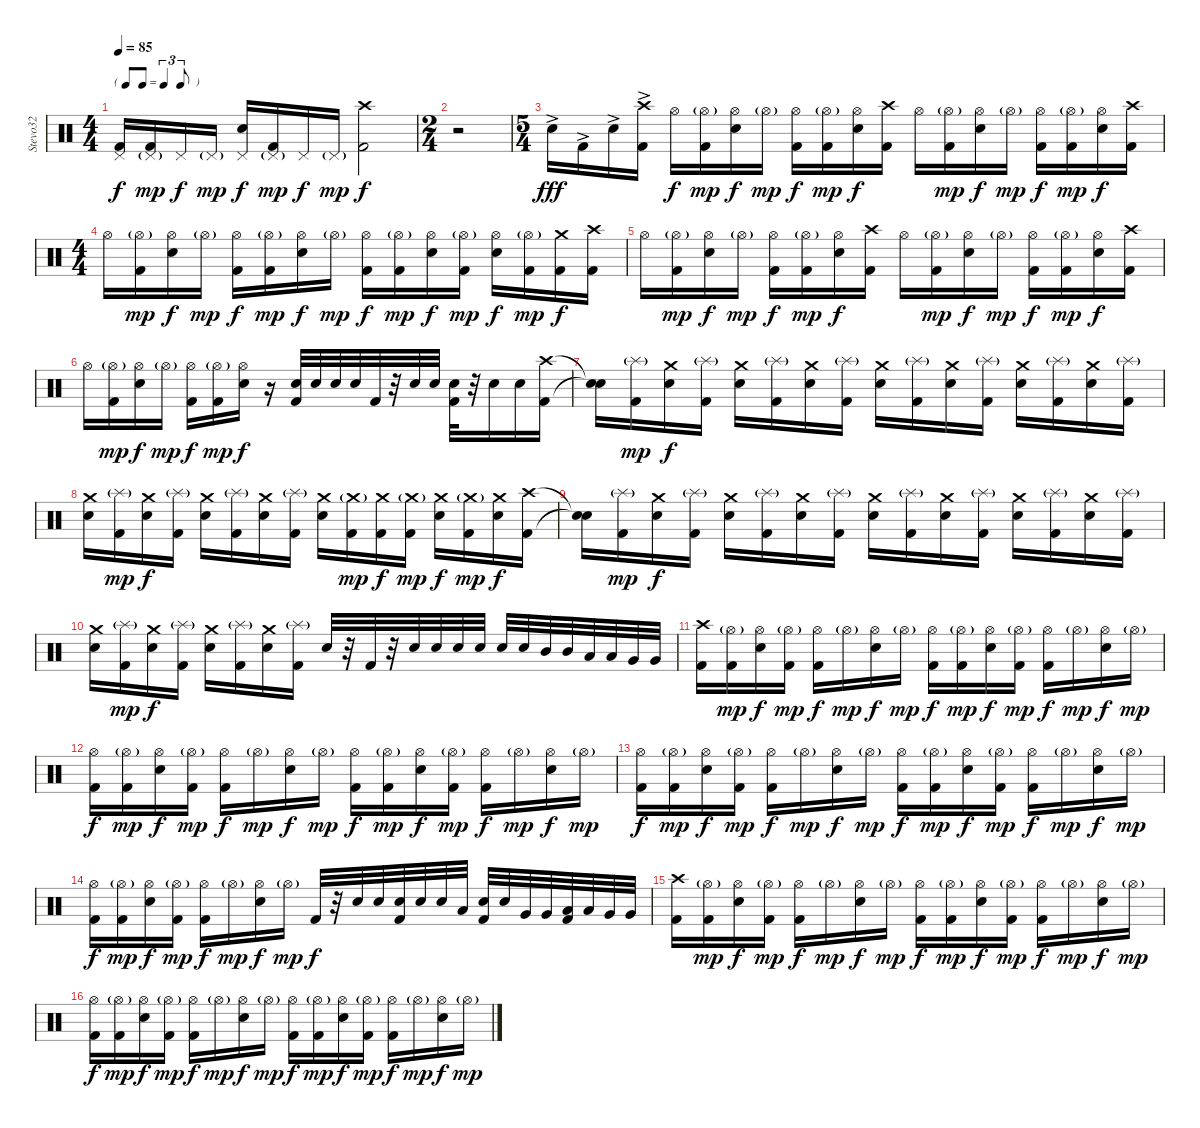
\track ("Stevo32" "Stevo32") {instrument percussion}
\staff {score}
\articulation defaults
\ts (4 4)
\tf triplet8th
\tempo 85
\clef neutral
\ks c
("Pedal Hi-Hat (hit)" "Kick (hit) 2").16{dy f} ("Pedal Hi-Hat (hit)"{g} "Kick (hit) 2").16{dy mp} "Pedal Hi-Hat (hit)".16{dy f} "Pedal Hi-Hat (hit)"{g}.16{dy mp} ("Pedal Hi-Hat (hit)" "Electric Snare (hit)").16{dy f} ("Pedal Hi-Hat (hit)"{g} "Kick (hit) 2").16{dy mp} "Pedal Hi-Hat (hit)".16{dy f} "Pedal Hi-Hat (hit)"{g}.16{dy mp} ("Crash high (hit)" "Kick (hit) 2").2{dy f} |
\ts (2 4)
r.2 |
\ts (5 4)
"Electric Snare (hit)"{ac}.16{dy fff} "Kick (hit) 2"{ac}.16 "Electric Snare (hit)"{ac}.16 ("Crash high (hit)" "Kick (hit) 2"{ac}).16 "Hi-Hat (open)".16{dy f} ("Hi-Hat (open)"{g} "Kick (hit) 2").16{dy mp} ("Hi-Hat (open)" "Electric Snare (hit)").16{dy f} "Hi-Hat (open)"{g}.16{dy mp} ("Hi-Hat (open)" "Kick (hit) 2").16{dy f} ("Hi-Hat (open)"{g} "Kick (hit) 2").16{dy mp} ("Hi-Hat (open)" "Electric Snare (hit)").16{dy f} ("Crash high (hit)" "Kick (hit) 2").16 "Hi-Hat (open)".16 ("Hi-Hat (open)"{g} "Kick (hit) 2").16{dy mp} ("Hi-Hat (open)" "Electric Snare (hit)").16{dy f} "Hi-Hat (open)"{g}.16{dy mp} ("Hi-Hat (open)" "Kick (hit) 2").16{dy f} ("Hi-Hat (open)"{g} "Kick (hit) 2").16{dy mp} ("Hi-Hat (open)" "Electric Snare (hit)").16{dy f} ("Crash high (hit)" "Kick (hit) 2").16 |
\ts (4 4)
"Hi-Hat (open)".16 ("Hi-Hat (open)"{g} "Kick (hit) 2").16{dy mp} ("Hi-Hat (open)" "Electric Snare (hit)").16{dy f} "Hi-Hat (open)"{g}.16{dy mp} ("Hi-Hat (open)" "Kick (hit) 2").16{dy f} ("Hi-Hat (open)"{g} "Kick (hit) 2").16{dy mp} ("Hi-Hat (open)" "Electric Snare (hit)").16{dy f} "Hi-Hat (open)"{g}.16{dy mp} ("Hi-Hat (open)" "Kick (hit) 2").16{dy f} ("Hi-Hat (open)"{g} "Kick (hit) 2").16{dy mp} ("Hi-Hat (open)" "Electric Snare (hit)").16{dy f} ("Hi-Hat (open)"{g} "Kick (hit) 2").16{dy mp} ("Hi-Hat (open)" "Electric Snare (hit)").16{dy f} ("Hi-Hat (open)"{g} "Kick (hit) 2").16{dy mp} ("Crash medium (hit)" "Kick (hit) 2").16{dy f} ("Crash high (hit)" "Kick (hit) 2").16 |
"Hi-Hat (open)".16 ("Hi-Hat (open)"{g} "Kick (hit) 2").16{dy mp} ("Hi-Hat (open)" "Electric Snare (hit)").16{dy f} "Hi-Hat (open)"{g}.16{dy mp} ("Hi-Hat (open)" "Kick (hit) 2").16{dy f} ("Hi-Hat (open)"{g} "Kick (hit) 2").16{dy mp} ("Hi-Hat (open)" "Electric Snare (hit)").16{dy f} ("Crash high (hit)" "Kick (hit) 2").16 "Hi-Hat (open)".16 ("Hi-Hat (open)"{g} "Kick (hit) 2").16{dy mp} ("Hi-Hat (open)" "Electric Snare (hit)").16{dy f} "Hi-Hat (open)"{g}.16{dy mp} ("Hi-Hat (open)" "Kick (hit) 2").16{dy f} ("Hi-Hat (open)"{g} "Kick (hit) 2").16{dy mp} ("Hi-Hat (open)" "Electric Snare (hit)").16{dy f} ("Crash high (hit)" "Kick (hit) 2").16 |
"Hi-Hat (open)".16 ("Hi-Hat (open)"{g} "Kick (hit) 2").16{dy mp} ("Hi-Hat (open)" "Electric Snare (hit)").16{dy f} "Hi-Hat (open)"{g}.16{dy mp} ("Hi-Hat (open)" "Kick (hit) 2").16{dy f} ("Hi-Hat (open)"{g} "Kick (hit) 2").16{dy mp} ("Hi-Hat (open)" "Electric Snare (hit)").16{dy f} r.16 ("Electric Snare (hit)" "Kick (hit) 2").32 "Electric Snare (hit)".32 "Electric Snare (hit)".32 "Electric Snare (hit)".32 "Kick (hit) 2".32 r.32 "Electric Snare (hit)".32 "Electric Snare (hit)".32 ("Electric Snare (hit)" "Kick (hit) 2").32 r.32 "Electric Snare (hit)".16 "Electric Snare (hit)".16 ("Crash high (hit)" "Kick (hit) 2").16 |
("Snare (hit)"{t} "Snare (hit)"{t}).16 ("Splash (hit)"{g} "Kick (hit) 2").16{dy mp} ("Crash medium (hit)" "Electric Snare (hit)").16{dy f} ("Splash (hit)"{g} "Kick (hit) 2").16 ("Crash medium (hit)" "Electric Snare (hit)").16 ("Splash (hit)"{g} "Kick (hit) 2").16 ("Crash medium (hit)" "Electric Snare (hit)").16 ("Splash (hit)"{g} "Kick (hit) 2").16 ("Crash medium (hit)" "Electric Snare (hit)").16 ("Splash (hit)"{g} "Kick (hit) 2").16 ("Crash medium (hit)" "Electric Snare (hit)").16 ("Splash (hit)"{g} "Kick (hit) 2").16 ("Crash medium (hit)" "Electric Snare (hit)").16 ("Splash (hit)"{g} "Kick (hit) 2").16 ("Crash medium (hit)" "Electric Snare (hit)").16 ("Splash (hit)"{g} "Kick (hit) 2").16 |
("Crash medium (hit)" "Electric Snare (hit)").16 ("Splash (hit)"{g} "Kick (hit) 2").16{dy mp} ("Crash medium (hit)" "Electric Snare (hit)").16{dy f} ("Splash (hit)"{g} "Kick (hit) 2").16 ("Crash medium (hit)" "Electric Snare (hit)").16 ("Splash (hit)"{g} "Kick (hit) 2").16 ("Crash medium (hit)" "Electric Snare (hit)").16 ("Splash (hit)"{g} "Kick (hit) 2").16 ("Crash medium (hit)" "Electric Snare (hit)").16 ("Crash medium (hit)"{g} "Kick (hit) 2").16{dy mp} ("Crash medium (hit)" "Kick (hit) 2").16{dy f} ("Crash medium (hit)"{g} "Kick (hit) 2").16{dy mp} ("Crash medium (hit)" "Electric Snare (hit)").16{dy f} ("Crash medium (hit)"{g} "Kick (hit) 2").16{dy mp} ("Crash medium (hit)" "Electric Snare (hit)").16{dy f} ("Crash high (hit)" "Kick (hit) 2").16 |
("Snare (hit)"{t} "Snare (hit)"{t}).16 ("Splash (hit)"{g} "Kick (hit) 2").16{dy mp} ("Crash medium (hit)" "Electric Snare (hit)").16{dy f} ("Splash (hit)"{g} "Kick (hit) 2").16 ("Crash medium (hit)" "Electric Snare (hit)").16 ("Splash (hit)"{g} "Kick (hit) 2").16 ("Crash medium (hit)" "Electric Snare (hit)").16 ("Splash (hit)"{g} "Kick (hit) 2").16 ("Crash medium (hit)" "Electric Snare (hit)").16 ("Splash (hit)"{g} "Kick (hit) 2").16 ("Crash medium (hit)" "Electric Snare (hit)").16 ("Splash (hit)"{g} "Kick (hit) 2").16 ("Crash medium (hit)" "Electric Snare (hit)").16 ("Splash (hit)"{g} "Kick (hit) 2").16 ("Crash medium (hit)" "Electric Snare (hit)").16 ("Splash (hit)"{g} "Kick (hit) 2").16 |
("Crash medium (hit)" "Electric Snare (hit)").16 ("Splash (hit)"{g} "Kick (hit) 2").16{dy mp} ("Crash medium (hit)" "Electric Snare (hit)").16{dy f} ("Splash (hit)"{g} "Kick (hit) 2").16 ("Crash medium (hit)" "Electric Snare (hit)").16 ("Splash (hit)"{g} "Kick (hit) 2").16 ("Crash medium (hit)" "Electric Snare (hit)").16 ("Splash (hit)"{g} "Kick (hit) 2").16 "Electric Snare (hit)".32 r.32 "Kick (hit) 2".32 r.32 "Electric Snare (hit)".32 "Electric Snare (hit)".32 "Electric Snare (hit)".32 "Electric Snare (hit)".32 "Electric Snare (hit)".32 "Electric Snare (hit)".32 "Mid Tom (hit)".32 "Mid Tom (hit)".32 "Low Tom (hit)".32 "Low Tom (hit)".32 "Very Low Tom (hit)".32 "Very Low Tom (hit)".32 |
("Crash high (hit)" "Kick (hit) 2").16 ("Hi-Hat (open)"{g} "Kick (hit) 2").16{dy mp} ("Hi-Hat (open)" "Electric Snare (hit)").16{dy f} ("Hi-Hat (open)"{g} "Kick (hit) 2").16{dy mp} ("Hi-Hat (open)" "Kick (hit) 2").16{dy f} "Hi-Hat (open)"{g}.16{dy mp} ("Hi-Hat (open)" "Electric Snare (hit)").16{dy f} "Hi-Hat (open)"{g}.16{dy mp} ("Hi-Hat (open)" "Kick (hit) 2").16{dy f} ("Hi-Hat (open)"{g} "Kick (hit) 2").16{dy mp} ("Hi-Hat (open)" "Electric Snare (hit)").16{dy f} ("Hi-Hat (open)"{g} "Kick (hit) 2").16{dy mp} ("Hi-Hat (open)" "Kick (hit) 2").16{dy f} "Hi-Hat (open)"{g}.16{dy mp} ("Hi-Hat (open)" "Electric Snare (hit)").16{dy f} "Hi-Hat (open)"{g}.16{dy mp} |
("Hi-Hat (open)" "Kick (hit) 2").16{dy f} ("Hi-Hat (open)"{g} "Kick (hit) 2").16{dy mp} ("Hi-Hat (open)" "Electric Snare (hit)").16{dy f} ("Hi-Hat (open)"{g} "Kick (hit) 2").16{dy mp} ("Hi-Hat (open)" "Kick (hit) 2").16{dy f} "Hi-Hat (open)"{g}.16{dy mp} ("Hi-Hat (open)" "Electric Snare (hit)").16{dy f} "Hi-Hat (open)"{g}.16{dy mp} ("Hi-Hat (open)" "Kick (hit) 2").16{dy f} ("Hi-Hat (open)"{g} "Kick (hit) 2").16{dy mp} ("Hi-Hat (open)" "Electric Snare (hit)").16{dy f} ("Hi-Hat (open)"{g} "Kick (hit) 2").16{dy mp} ("Hi-Hat (open)" "Kick (hit) 2").16{dy f} "Hi-Hat (open)"{g}.16{dy mp} ("Hi-Hat (open)" "Electric Snare (hit)").16{dy f} "Hi-Hat (open)"{g}.16{dy mp} |
("Hi-Hat (open)" "Kick (hit) 2").16{dy f} ("Hi-Hat (open)"{g} "Kick (hit) 2").16{dy mp} ("Hi-Hat (open)" "Electric Snare (hit)").16{dy f} ("Hi-Hat (open)"{g} "Kick (hit) 2").16{dy mp} ("Hi-Hat (open)" "Kick (hit) 2").16{dy f} "Hi-Hat (open)"{g}.16{dy mp} ("Hi-Hat (open)" "Electric Snare (hit)").16{dy f} "Hi-Hat (open)"{g}.16{dy mp} ("Hi-Hat (open)" "Kick (hit) 2").16{dy f} ("Hi-Hat (open)"{g} "Kick (hit) 2").16{dy mp} ("Hi-Hat (open)" "Electric Snare (hit)").16{dy f} ("Hi-Hat (open)"{g} "Kick (hit) 2").16{dy mp} ("Hi-Hat (open)" "Kick (hit) 2").16{dy f} "Hi-Hat (open)"{g}.16{dy mp} ("Hi-Hat (open)" "Electric Snare (hit)").16{dy f} "Hi-Hat (open)"{g}.16{dy mp} |
("Hi-Hat (open)" "Kick (hit) 2").16{dy f} ("Hi-Hat (open)"{g} "Kick (hit) 2").16{dy mp} ("Hi-Hat (open)" "Electric Snare (hit)").16{dy f} ("Hi-Hat (open)"{g} "Kick (hit) 2").16{dy mp} ("Hi-Hat (open)" "Kick (hit) 2").16{dy f} "Hi-Hat (open)"{g}.16{dy mp} ("Hi-Hat (open)" "Electric Snare (hit)").16{dy f} "Hi-Hat (open)"{g}.16{dy mp} "Kick (hit) 2".32{dy f} r.32 "Electric Snare (hit)".32 "Electric Snare (hit)".32 ("Electric Snare (hit)" "Kick (hit) 2").32 "Electric Snare (hit)".32 "Electric Snare (hit)".32 "Low Tom (hit)".32 ("Electric Snare (hit)" "Kick (hit) 2").32 "Electric Snare (hit)".32 "Very Low Tom (hit)".32 "Very Low Tom (hit)".32 ("Low Tom (hit)" "Kick (hit) 2").32 "Low Tom (hit)".32 "Very Low Tom (hit)".32 "Very Low Tom (hit)".32 |
("Crash high (hit)" "Kick (hit) 2").16 ("Hi-Hat (open)"{g} "Kick (hit) 2").16{dy mp} ("Hi-Hat (open)" "Electric Snare (hit)").16{dy f} ("Hi-Hat (open)"{g} "Kick (hit) 2").16{dy mp} ("Hi-Hat (open)" "Kick (hit) 2").16{dy f} "Hi-Hat (open)"{g}.16{dy mp} ("Hi-Hat (open)" "Electric Snare (hit)").16{dy f} "Hi-Hat (open)"{g}.16{dy mp} ("Hi-Hat (open)" "Kick (hit) 2").16{dy f} ("Hi-Hat (open)"{g} "Kick (hit) 2").16{dy mp} ("Hi-Hat (open)" "Electric Snare (hit)").16{dy f} ("Hi-Hat (open)"{g} "Kick (hit) 2").16{dy mp} ("Hi-Hat (open)" "Kick (hit) 2").16{dy f} "Hi-Hat (open)"{g}.16{dy mp} ("Hi-Hat (open)" "Electric Snare (hit)").16{dy f} "Hi-Hat (open)"{g}.16{dy mp} |
("Hi-Hat (open)" "Kick (hit) 2").16{dy f} ("Hi-Hat (open)"{g} "Kick (hit) 2").16{dy mp} ("Hi-Hat (open)" "Electric Snare (hit)").16{dy f} ("Hi-Hat (open)"{g} "Kick (hit) 2").16{dy mp} ("Hi-Hat (open)" "Kick (hit) 2").16{dy f} "Hi-Hat (open)"{g}.16{dy mp} ("Hi-Hat (open)" "Electric Snare (hit)").16{dy f} "Hi-Hat (open)"{g}.16{dy mp} ("Hi-Hat (open)" "Kick (hit) 2").16{dy f} ("Hi-Hat (open)"{g} "Kick (hit) 2").16{dy mp} ("Hi-Hat (open)" "Electric Snare (hit)").16{dy f} ("Hi-Hat (open)"{g} "Kick (hit) 2").16{dy mp} ("Hi-Hat (open)" "Kick (hit) 2").16{dy f} "Hi-Hat (open)"{g}.16{dy mp} ("Hi-Hat (open)" "Electric Snare (hit)").16{dy f} "Hi-Hat (open)"{g}.16{dy mp}
